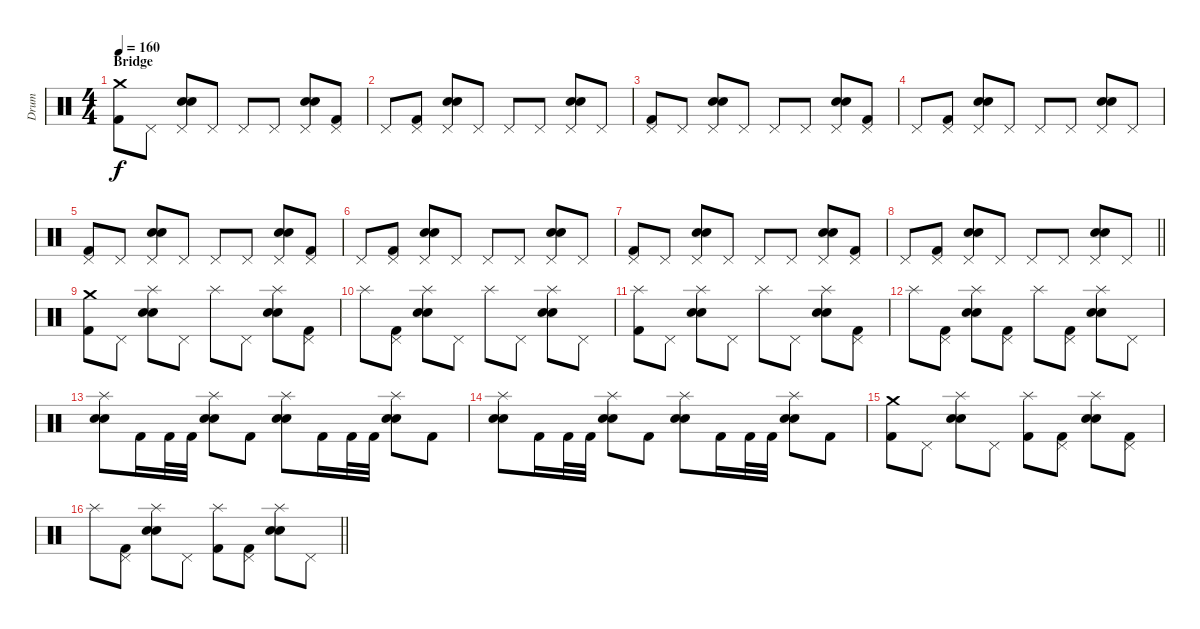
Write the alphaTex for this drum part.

\track ("Drum" "Drum") {instrument percussion}
\staff {score}
\articulation defaults
\ts (4 4)
\section ("" "Bridge")
\tempo 160
\clef neutral
\ks c
("Crash medium (hit)" "Kick (hit) 2").8{dy f} "Pedal Hi-Hat (hit)".8 ("Pedal Hi-Hat (hit)" "Electric Snare (hit)" "Snare (hit) 2").8 "Pedal Hi-Hat (hit)".8 "Pedal Hi-Hat (hit)".8 "Pedal Hi-Hat (hit)".8 ("Pedal Hi-Hat (hit)" "Electric Snare (hit)" "Snare (hit) 2").8 ("Pedal Hi-Hat (hit)" "Kick (hit) 2").8 |
"Pedal Hi-Hat (hit)".8 ("Pedal Hi-Hat (hit)" "Kick (hit) 2").8 ("Pedal Hi-Hat (hit)" "Electric Snare (hit)" "Snare (hit) 2").8 "Pedal Hi-Hat (hit)".8 "Pedal Hi-Hat (hit)".8 "Pedal Hi-Hat (hit)".8 ("Pedal Hi-Hat (hit)" "Electric Snare (hit)" "Snare (hit) 2").8 "Pedal Hi-Hat (hit)".8 |
("Pedal Hi-Hat (hit)" "Kick (hit) 2").8 "Pedal Hi-Hat (hit)".8 ("Pedal Hi-Hat (hit)" "Electric Snare (hit)" "Snare (hit) 2").8 "Pedal Hi-Hat (hit)".8 "Pedal Hi-Hat (hit)".8 "Pedal Hi-Hat (hit)".8 ("Pedal Hi-Hat (hit)" "Electric Snare (hit)" "Snare (hit) 2").8 ("Pedal Hi-Hat (hit)" "Kick (hit) 2").8 |
"Pedal Hi-Hat (hit)".8 ("Pedal Hi-Hat (hit)" "Kick (hit) 2").8 ("Pedal Hi-Hat (hit)" "Electric Snare (hit)" "Snare (hit) 2").8 "Pedal Hi-Hat (hit)".8 "Pedal Hi-Hat (hit)".8 "Pedal Hi-Hat (hit)".8 ("Pedal Hi-Hat (hit)" "Electric Snare (hit)" "Snare (hit) 2").8 "Pedal Hi-Hat (hit)".8 |
("Pedal Hi-Hat (hit)" "Kick (hit) 2").8 "Pedal Hi-Hat (hit)".8 ("Pedal Hi-Hat (hit)" "Electric Snare (hit)" "Snare (hit) 2").8 "Pedal Hi-Hat (hit)".8 "Pedal Hi-Hat (hit)".8 "Pedal Hi-Hat (hit)".8 ("Pedal Hi-Hat (hit)" "Electric Snare (hit)" "Snare (hit) 2").8 ("Pedal Hi-Hat (hit)" "Kick (hit) 2").8 |
"Pedal Hi-Hat (hit)".8 ("Pedal Hi-Hat (hit)" "Kick (hit) 2").8 ("Pedal Hi-Hat (hit)" "Electric Snare (hit)" "Snare (hit) 2").8 "Pedal Hi-Hat (hit)".8 "Pedal Hi-Hat (hit)".8 "Pedal Hi-Hat (hit)".8 ("Pedal Hi-Hat (hit)" "Electric Snare (hit)" "Snare (hit) 2").8 "Pedal Hi-Hat (hit)".8 |
("Pedal Hi-Hat (hit)" "Kick (hit) 2").8 "Pedal Hi-Hat (hit)".8 ("Pedal Hi-Hat (hit)" "Electric Snare (hit)" "Snare (hit) 2").8 "Pedal Hi-Hat (hit)".8 "Pedal Hi-Hat (hit)".8 "Pedal Hi-Hat (hit)".8 ("Pedal Hi-Hat (hit)" "Electric Snare (hit)" "Snare (hit) 2").8 ("Pedal Hi-Hat (hit)" "Kick (hit) 2").8 |
\barLineRight lightlight "Pedal Hi-Hat (hit)".8
("Pedal Hi-Hat (hit)" "Kick (hit) 2").8 ("Pedal Hi-Hat (hit)" "Electric Snare (hit)" "Snare (hit) 2").8 "Pedal Hi-Hat (hit)".8 "Pedal Hi-Hat (hit)".8 "Pedal Hi-Hat (hit)".8 ("Pedal Hi-Hat (hit)" "Electric Snare (hit)" "Snare (hit) 2").8 "Pedal Hi-Hat (hit)".8 |
("Crash medium (hit)" "Kick (hit) 2").8 "Pedal Hi-Hat (hit)".8 ("Splash (hit)" "Electric Snare (hit)" "Snare (hit) 2").8 "Pedal Hi-Hat (hit)".8 "Splash (hit)".8 "Pedal Hi-Hat (hit)".8 ("Splash (hit)" "Electric Snare (hit)" "Snare (hit) 2").8 ("Pedal Hi-Hat (hit)" "Kick (hit) 2").8 |
"Splash (hit)".8 ("Pedal Hi-Hat (hit)" "Kick (hit) 2").8 ("Splash (hit)" "Electric Snare (hit)" "Snare (hit) 2").8 "Pedal Hi-Hat (hit)".8 "Splash (hit)".8 "Pedal Hi-Hat (hit)".8 ("Splash (hit)" "Electric Snare (hit)" "Snare (hit) 2").8 "Pedal Hi-Hat (hit)".8 |
("Splash (hit)" "Kick (hit) 2").8 "Pedal Hi-Hat (hit)".8 ("Splash (hit)" "Electric Snare (hit)" "Snare (hit) 2").8 "Pedal Hi-Hat (hit)".8 "Splash (hit)".8 "Pedal Hi-Hat (hit)".8 ("Splash (hit)" "Electric Snare (hit)" "Snare (hit) 2").8 ("Pedal Hi-Hat (hit)" "Kick (hit) 2").8 |
"Splash (hit)".8 ("Pedal Hi-Hat (hit)" "Kick (hit) 2").8 ("Splash (hit)" "Electric Snare (hit)" "Snare (hit) 2").8 ("Pedal Hi-Hat (hit)" "Kick (hit) 2").8 "Splash (hit)".8 ("Pedal Hi-Hat (hit)" "Kick (hit) 2").8 ("Splash (hit)" "Electric Snare (hit)" "Snare (hit) 2").8 "Pedal Hi-Hat (hit)".8 |
("Splash (hit)" "Electric Snare (hit)" "Snare (hit) 2").8 "Kick (hit) 2".16 "Kick (hit) 2".32 "Kick (hit) 2".32 ("Splash (hit)" "Electric Snare (hit)" "Snare (hit) 2").8 "Kick (hit) 2".8 ("Splash (hit)" "Electric Snare (hit)" "Snare (hit) 2").8 "Kick (hit) 2".16 "Kick (hit) 2".32 "Kick (hit) 2".32 ("Splash (hit)" "Electric Snare (hit)" "Snare (hit) 2").8 "Kick (hit) 2".8 |
("Splash (hit)" "Electric Snare (hit)" "Snare (hit) 2").8 "Kick (hit) 2".16 "Kick (hit) 2".32 "Kick (hit) 2".32 ("Splash (hit)" "Electric Snare (hit)" "Snare (hit) 2").8 "Kick (hit) 2".8 ("Splash (hit)" "Electric Snare (hit)" "Snare (hit) 2").8 "Kick (hit) 2".16 "Kick (hit) 2".32 "Kick (hit) 2".32 ("Splash (hit)" "Electric Snare (hit)" "Snare (hit) 2").8 "Kick (hit) 2".8 |
("Crash medium (hit)" "Kick (hit) 2").8 "Pedal Hi-Hat (hit)".8 ("Splash (hit)" "Electric Snare (hit)" "Snare (hit) 2").8 "Pedal Hi-Hat (hit)".8 ("Splash (hit)" "Kick (hit) 2").8 ("Pedal Hi-Hat (hit)" "Kick (hit) 2").8 ("Splash (hit)" "Electric Snare (hit)" "Snare (hit) 2").8 ("Pedal Hi-Hat (hit)" "Kick (hit) 2").8 |
\barLineRight lightlight "Splash (hit)".8
("Pedal Hi-Hat (hit)" "Kick (hit) 2").8 ("Splash (hit)" "Electric Snare (hit)" "Snare (hit) 2").8 "Pedal Hi-Hat (hit)".8 ("Splash (hit)" "Kick (hit) 2").8 ("Pedal Hi-Hat (hit)" "Kick (hit) 2").8 ("Splash (hit)" "Electric Snare (hit)" "Snare (hit) 2").8 "Pedal Hi-Hat (hit)".8
